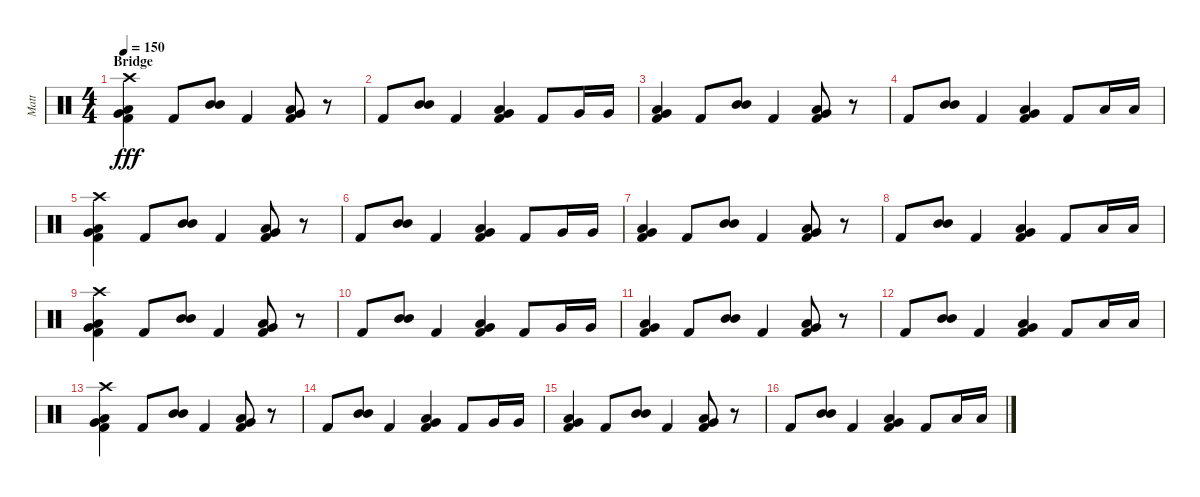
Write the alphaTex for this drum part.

\track ("Matt" "Matt") {instrument percussion}
\staff {score}
\articulation defaults
\ts (4 4)
\section ("" "Bridge")
\tempo 150
\clef neutral
\ks c
("Crash high (hit)" "Low Floor Tom (hit)" "Very Low Tom (hit)" "Kick (hit) 2").4{dy fff} "Kick (hit) 2".8 ("Mid Tom (hit)" "Mid Tom (hit)").8 "Kick (hit) 2".4 ("Low Floor Tom (hit)" "Very Low Tom (hit)" "Kick (hit) 2").8 r.8 |
"Kick (hit) 2".8 ("Mid Tom (hit)" "Mid Tom (hit)").8 "Kick (hit) 2".4 ("Low Floor Tom (hit)" "Very Low Tom (hit)" "Kick (hit) 2").4 "Kick (hit) 2".8 "Very Low Tom (hit)".16 "Very Low Tom (hit)".16 |
("Low Floor Tom (hit)" "Very Low Tom (hit)" "Kick (hit) 2").4 "Kick (hit) 2".8 ("Mid Tom (hit)" "Mid Tom (hit)").8 "Kick (hit) 2".4 ("Low Floor Tom (hit)" "Very Low Tom (hit)" "Kick (hit) 2").8 r.8 |
"Kick (hit) 2".8 ("Mid Tom (hit)" "Mid Tom (hit)").8 "Kick (hit) 2".4 ("Low Floor Tom (hit)" "Very Low Tom (hit)" "Kick (hit) 2").4 "Kick (hit) 2".8 "Low Floor Tom (hit)".16 "Low Floor Tom (hit)".16 |
("Crash high (hit)" "Low Floor Tom (hit)" "Very Low Tom (hit)" "Kick (hit) 2").4 "Kick (hit) 2".8 ("Mid Tom (hit)" "Mid Tom (hit)").8 "Kick (hit) 2".4 ("Low Floor Tom (hit)" "Very Low Tom (hit)" "Kick (hit) 2").8 r.8 |
"Kick (hit) 2".8 ("Mid Tom (hit)" "Mid Tom (hit)").8 "Kick (hit) 2".4 ("Low Floor Tom (hit)" "Very Low Tom (hit)" "Kick (hit) 2").4 "Kick (hit) 2".8 "Very Low Tom (hit)".16 "Very Low Tom (hit)".16 |
("Low Floor Tom (hit)" "Very Low Tom (hit)" "Kick (hit) 2").4 "Kick (hit) 2".8 ("Mid Tom (hit)" "Mid Tom (hit)").8 "Kick (hit) 2".4 ("Low Floor Tom (hit)" "Very Low Tom (hit)" "Kick (hit) 2").8 r.8 |
"Kick (hit) 2".8 ("Mid Tom (hit)" "Mid Tom (hit)").8 "Kick (hit) 2".4 ("Low Floor Tom (hit)" "Very Low Tom (hit)" "Kick (hit) 2").4 "Kick (hit) 2".8 "Low Floor Tom (hit)".16 "Low Floor Tom (hit)".16 |
("Crash high (hit)" "Low Floor Tom (hit)" "Very Low Tom (hit)" "Kick (hit) 2").4 "Kick (hit) 2".8 ("Mid Tom (hit)" "Mid Tom (hit)").8 "Kick (hit) 2".4 ("Low Floor Tom (hit)" "Very Low Tom (hit)" "Kick (hit) 2").8 r.8 |
"Kick (hit) 2".8 ("Mid Tom (hit)" "Mid Tom (hit)").8 "Kick (hit) 2".4 ("Low Floor Tom (hit)" "Very Low Tom (hit)" "Kick (hit) 2").4 "Kick (hit) 2".8 "Very Low Tom (hit)".16 "Very Low Tom (hit)".16 |
("Low Floor Tom (hit)" "Very Low Tom (hit)" "Kick (hit) 2").4 "Kick (hit) 2".8 ("Mid Tom (hit)" "Mid Tom (hit)").8 "Kick (hit) 2".4 ("Low Floor Tom (hit)" "Very Low Tom (hit)" "Kick (hit) 2").8 r.8 |
"Kick (hit) 2".8 ("Mid Tom (hit)" "Mid Tom (hit)").8 "Kick (hit) 2".4 ("Low Floor Tom (hit)" "Very Low Tom (hit)" "Kick (hit) 2").4 "Kick (hit) 2".8 "Low Floor Tom (hit)".16 "Low Floor Tom (hit)".16 |
("Crash high (hit)" "Low Floor Tom (hit)" "Very Low Tom (hit)" "Kick (hit) 2").4 "Kick (hit) 2".8 ("Mid Tom (hit)" "Mid Tom (hit)").8 "Kick (hit) 2".4 ("Low Floor Tom (hit)" "Very Low Tom (hit)" "Kick (hit) 2").8 r.8 |
"Kick (hit) 2".8 ("Mid Tom (hit)" "Mid Tom (hit)").8 "Kick (hit) 2".4 ("Low Floor Tom (hit)" "Very Low Tom (hit)" "Kick (hit) 2").4 "Kick (hit) 2".8 "Very Low Tom (hit)".16 "Very Low Tom (hit)".16 |
("Low Floor Tom (hit)" "Very Low Tom (hit)" "Kick (hit) 2").4 "Kick (hit) 2".8 ("Mid Tom (hit)" "Mid Tom (hit)").8 "Kick (hit) 2".4 ("Low Floor Tom (hit)" "Very Low Tom (hit)" "Kick (hit) 2").8 r.8 |
"Kick (hit) 2".8 ("Mid Tom (hit)" "Mid Tom (hit)").8 "Kick (hit) 2".4 ("Low Floor Tom (hit)" "Very Low Tom (hit)" "Kick (hit) 2").4 "Kick (hit) 2".8 "Low Floor Tom (hit)".16 "Low Floor Tom (hit)".16
